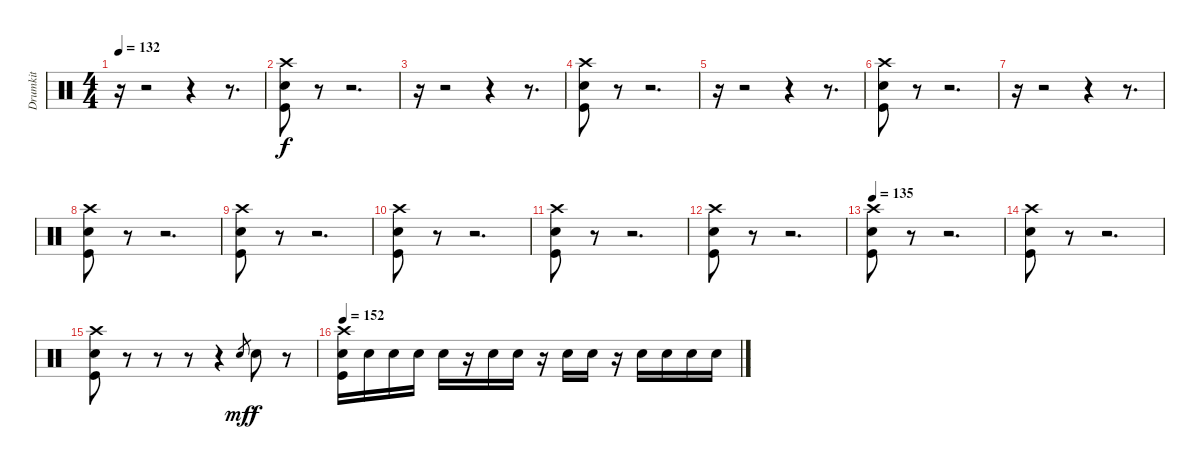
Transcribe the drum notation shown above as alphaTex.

\track ("Drumkit" "Drumkit") {instrument percussion}
\staff {score}
\articulation defaults
\ts (4 4)
\tempo 132
\clef neutral
\ks c
r.16{dy f} r.2 r.4 r.8{d} |
("Crash high (hit)" "Snare (hit) 2" "Kick (hit)").8 r.8 r.2{d} |
r.16 r.2 r.4 r.8{d} |
("Crash high (hit)" "Snare (hit) 2" "Kick (hit)").8 r.8 r.2{d} |
r.16 r.2 r.4 r.8{d} |
("Crash high (hit)" "Snare (hit) 2" "Kick (hit)").8 r.8 r.2{d} |
r.16 r.2 r.4 r.8{d} |
("Crash high (hit)" "Snare (hit) 2" "Kick (hit)").8 r.8 r.2{d} |
("Crash high (hit)" "Snare (hit) 2" "Kick (hit)").8 r.8 r.2{d} |
("Crash high (hit)" "Snare (hit) 2" "Kick (hit)").8 r.8 r.2{d} |
("Crash high (hit)" "Snare (hit) 2" "Kick (hit)").8 r.8 r.2{d} |
("Crash high (hit)" "Snare (hit) 2" "Kick (hit)").8 r.8 r.2{d} |
\tempo 135
("Crash high (hit)" "Snare (hit) 2" "Kick (hit)").8 r.8 r.2{d} |
("Crash high (hit)" "Snare (hit) 2" "Kick (hit)").8 r.8 r.2{d} |
("Crash high (hit)" "Snare (hit) 2" "Kick (hit)").8 r.8 r.8 r.8 r.4 "Snare (hit)".8{gr dy mf} "Snare (hit) 2".8{dy f} r.8 |
\tempo 152
("Crash high (hit)" "Snare (hit) 2" "Kick (hit)").16 "Snare (hit) 2".16 "Snare (hit) 2".16 "Snare (hit) 2".16 "Snare (hit) 2".16 r.16 "Snare (hit) 2".16 "Snare (hit) 2".16 r.16 "Snare (hit) 2".16 "Snare (hit) 2".16 r.16 "Snare (hit) 2".16 "Snare (hit) 2".16 "Snare (hit) 2".16 "Snare (hit) 2".16
